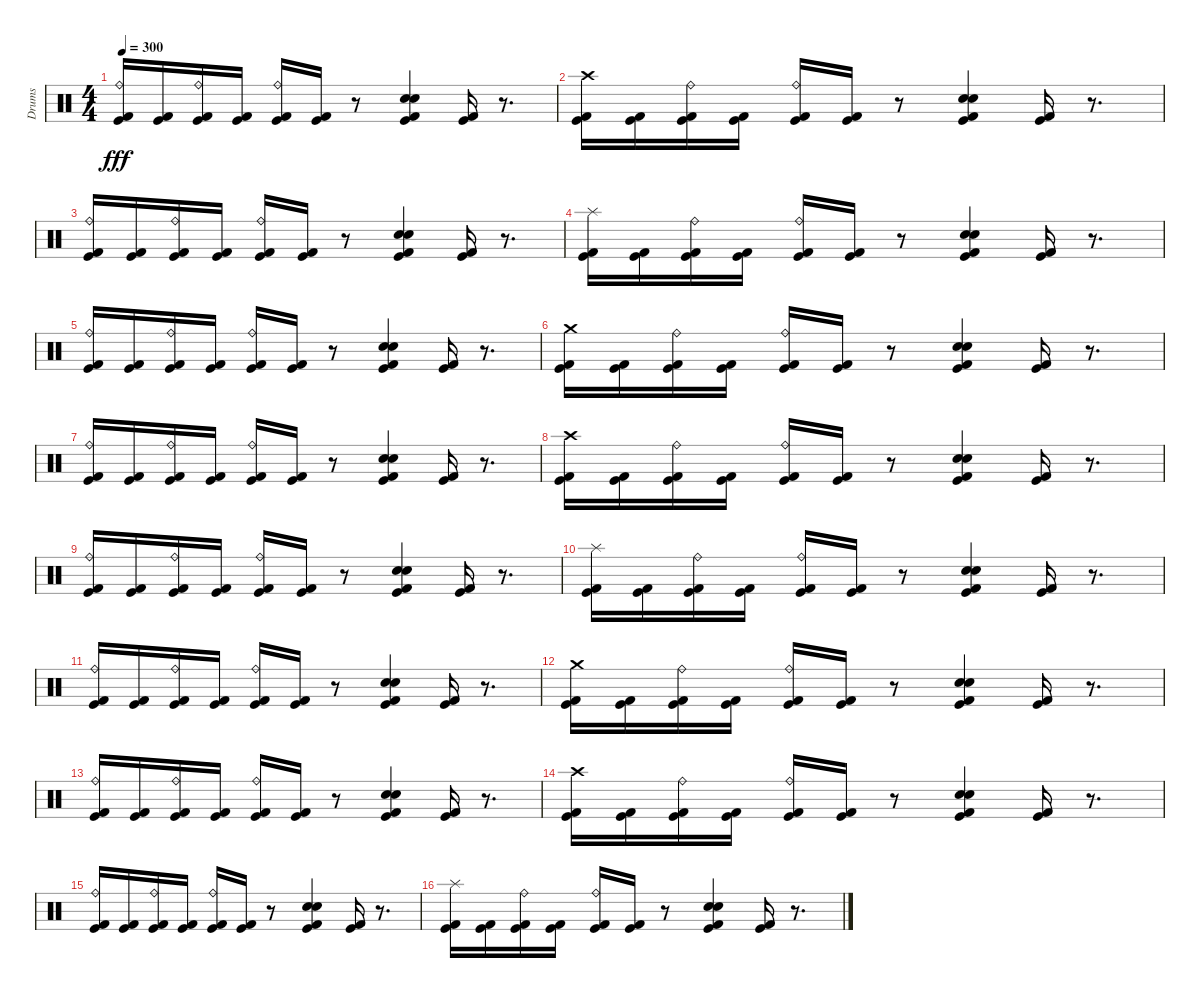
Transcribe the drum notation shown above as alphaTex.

\track ("Drums" "Drums") {instrument percussion}
\staff {score}
\articulation defaults
\ts (4 4)
\tempo 300
\clef neutral
\ks c
("Kick (hit) 2" "Ride (bell)" "Kick (hit)").16{dy fff} ("Kick (hit) 2" "Kick (hit)").16 ("Kick (hit) 2" "Ride (bell)" "Kick (hit)").16 ("Kick (hit) 2" "Kick (hit)").16 ("Kick (hit) 2" "Ride (bell)" "Kick (hit)").16 ("Kick (hit) 2" "Kick (hit)").16 r.8 ("Kick (hit) 2" "Snare (hit) 2" "Electric Snare (hit)" "Kick (hit)").4 ("Kick (hit) 2" "Kick (hit)").16 r.8{d} |
("Kick (hit) 2" "Crash high (hit)" "Kick (hit)").16 ("Kick (hit) 2" "Kick (hit)").16 ("Kick (hit) 2" "Ride (bell)" "Kick (hit)").16 ("Kick (hit) 2" "Kick (hit)").16 ("Kick (hit) 2" "Ride (bell)" "Kick (hit)").16 ("Kick (hit) 2" "Kick (hit)").16 r.8 ("Kick (hit) 2" "Snare (hit) 2" "Electric Snare (hit)" "Kick (hit)").4 ("Kick (hit) 2" "Kick (hit)").16 r.8{d} |
("Kick (hit) 2" "Ride (bell)" "Kick (hit)").16 ("Kick (hit) 2" "Kick (hit)").16 ("Kick (hit) 2" "Ride (bell)" "Kick (hit)").16 ("Kick (hit) 2" "Kick (hit)").16 ("Kick (hit) 2" "Ride (bell)" "Kick (hit)").16 ("Kick (hit) 2" "Kick (hit)").16 r.8 ("Kick (hit) 2" "Electric Snare (hit)" "Snare (hit) 2" "Kick (hit)").4 ("Kick (hit) 2" "Kick (hit)").16 r.8{d} |
("Kick (hit)" "Kick (hit) 2" "Splash (hit)").16 ("Kick (hit) 2" "Kick (hit)").16 ("Kick (hit) 2" "Ride (bell)" "Kick (hit)").16 ("Kick (hit) 2" "Kick (hit)").16 ("Kick (hit) 2" "Ride (bell)" "Kick (hit)").16 ("Kick (hit) 2" "Kick (hit)").16 r.8 ("Kick (hit) 2" "Snare (hit) 2" "Electric Snare (hit)" "Kick (hit)").4 ("Kick (hit) 2" "Kick (hit)").16 r.8{d} |
("Kick (hit) 2" "Ride (bell)" "Kick (hit)").16 ("Kick (hit) 2" "Kick (hit)").16 ("Kick (hit) 2" "Ride (bell)" "Kick (hit)").16 ("Kick (hit) 2" "Kick (hit)").16 ("Kick (hit) 2" "Ride (bell)" "Kick (hit)").16 ("Kick (hit) 2" "Kick (hit)").16 r.8 ("Kick (hit) 2" "Snare (hit) 2" "Electric Snare (hit)" "Kick (hit)").4 ("Kick (hit) 2" "Kick (hit)").16 r.8{d} |
("Kick (hit) 2" "Crash medium (hit)" "Kick (hit)").16 ("Kick (hit) 2" "Kick (hit)").16 ("Kick (hit) 2" "Ride (bell)" "Kick (hit)").16 ("Kick (hit) 2" "Kick (hit)").16 ("Kick (hit) 2" "Ride (bell)" "Kick (hit)").16 ("Kick (hit) 2" "Kick (hit)").16 r.8 ("Kick (hit) 2" "Snare (hit) 2" "Electric Snare (hit)" "Kick (hit)").4 ("Kick (hit) 2" "Kick (hit)").16 r.8{d} |
("Kick (hit) 2" "Ride (bell)" "Kick (hit)").16 ("Kick (hit) 2" "Kick (hit)").16 ("Kick (hit) 2" "Ride (bell)" "Kick (hit)").16 ("Kick (hit) 2" "Kick (hit)").16 ("Kick (hit) 2" "Ride (bell)" "Kick (hit)").16 ("Kick (hit) 2" "Kick (hit)").16 r.8 ("Kick (hit) 2" "Snare (hit) 2" "Electric Snare (hit)" "Kick (hit)").4 ("Kick (hit) 2" "Kick (hit)").16 r.8{d} |
("Kick (hit) 2" "Crash high (hit)" "Kick (hit)").16 ("Kick (hit) 2" "Kick (hit)").16 ("Kick (hit) 2" "Ride (bell)" "Kick (hit)").16 ("Kick (hit) 2" "Kick (hit)").16 ("Kick (hit) 2" "Ride (bell)" "Kick (hit)").16 ("Kick (hit) 2" "Kick (hit)").16 r.8 ("Kick (hit) 2" "Snare (hit) 2" "Electric Snare (hit)" "Kick (hit)").4 ("Kick (hit) 2" "Kick (hit)").16 r.8{d} |
("Kick (hit) 2" "Ride (bell)" "Kick (hit)").16 ("Kick (hit) 2" "Kick (hit)").16 ("Kick (hit) 2" "Ride (bell)" "Kick (hit)").16 ("Kick (hit) 2" "Kick (hit)").16 ("Kick (hit) 2" "Ride (bell)" "Kick (hit)").16 ("Kick (hit) 2" "Kick (hit)").16 r.8 ("Kick (hit) 2" "Electric Snare (hit)" "Snare (hit) 2" "Kick (hit)").4 ("Kick (hit) 2" "Kick (hit)").16 r.8{d} |
("Kick (hit)" "Kick (hit) 2" "Splash (hit)").16 ("Kick (hit) 2" "Kick (hit)").16 ("Kick (hit) 2" "Ride (bell)" "Kick (hit)").16 ("Kick (hit) 2" "Kick (hit)").16 ("Kick (hit) 2" "Ride (bell)" "Kick (hit)").16 ("Kick (hit) 2" "Kick (hit)").16 r.8 ("Kick (hit) 2" "Snare (hit) 2" "Electric Snare (hit)" "Kick (hit)").4 ("Kick (hit) 2" "Kick (hit)").16 r.8{d} |
("Kick (hit) 2" "Ride (bell)" "Kick (hit)").16 ("Kick (hit) 2" "Kick (hit)").16 ("Kick (hit) 2" "Ride (bell)" "Kick (hit)").16 ("Kick (hit) 2" "Kick (hit)").16 ("Kick (hit) 2" "Ride (bell)" "Kick (hit)").16 ("Kick (hit) 2" "Kick (hit)").16 r.8 ("Kick (hit) 2" "Snare (hit) 2" "Electric Snare (hit)" "Kick (hit)").4 ("Kick (hit) 2" "Kick (hit)").16 r.8{d} |
("Kick (hit) 2" "Crash medium (hit)" "Kick (hit)").16 ("Kick (hit) 2" "Kick (hit)").16 ("Kick (hit) 2" "Ride (bell)" "Kick (hit)").16 ("Kick (hit) 2" "Kick (hit)").16 ("Kick (hit) 2" "Ride (bell)" "Kick (hit)").16 ("Kick (hit) 2" "Kick (hit)").16 r.8 ("Kick (hit) 2" "Snare (hit) 2" "Electric Snare (hit)" "Kick (hit)").4 ("Kick (hit) 2" "Kick (hit)").16 r.8{d} |
("Kick (hit) 2" "Ride (bell)" "Kick (hit)").16 ("Kick (hit) 2" "Kick (hit)").16 ("Kick (hit) 2" "Ride (bell)" "Kick (hit)").16 ("Kick (hit) 2" "Kick (hit)").16 ("Kick (hit) 2" "Ride (bell)" "Kick (hit)").16 ("Kick (hit) 2" "Kick (hit)").16 r.8 ("Kick (hit) 2" "Snare (hit) 2" "Electric Snare (hit)" "Kick (hit)").4 ("Kick (hit) 2" "Kick (hit)").16 r.8{d} |
("Kick (hit) 2" "Crash high (hit)" "Kick (hit)").16 ("Kick (hit) 2" "Kick (hit)").16 ("Kick (hit) 2" "Ride (bell)" "Kick (hit)").16 ("Kick (hit) 2" "Kick (hit)").16 ("Kick (hit) 2" "Ride (bell)" "Kick (hit)").16 ("Kick (hit) 2" "Kick (hit)").16 r.8 ("Kick (hit) 2" "Snare (hit) 2" "Electric Snare (hit)" "Kick (hit)").4 ("Kick (hit) 2" "Kick (hit)").16 r.8{d} |
("Kick (hit) 2" "Ride (bell)" "Kick (hit)").16 ("Kick (hit) 2" "Kick (hit)").16 ("Kick (hit) 2" "Ride (bell)" "Kick (hit)").16 ("Kick (hit) 2" "Kick (hit)").16 ("Kick (hit) 2" "Ride (bell)" "Kick (hit)").16 ("Kick (hit) 2" "Kick (hit)").16 r.8 ("Kick (hit) 2" "Electric Snare (hit)" "Snare (hit) 2" "Kick (hit)").4 ("Kick (hit) 2" "Kick (hit)").16 r.8{d} |
("Kick (hit)" "Kick (hit) 2" "Splash (hit)").16 ("Kick (hit) 2" "Kick (hit)").16 ("Kick (hit) 2" "Ride (bell)" "Kick (hit)").16 ("Kick (hit) 2" "Kick (hit)").16 ("Kick (hit) 2" "Ride (bell)" "Kick (hit)").16 ("Kick (hit) 2" "Kick (hit)").16 r.8 ("Kick (hit) 2" "Snare (hit) 2" "Electric Snare (hit)" "Kick (hit)").4 ("Kick (hit) 2" "Kick (hit)").16 r.8{d}
